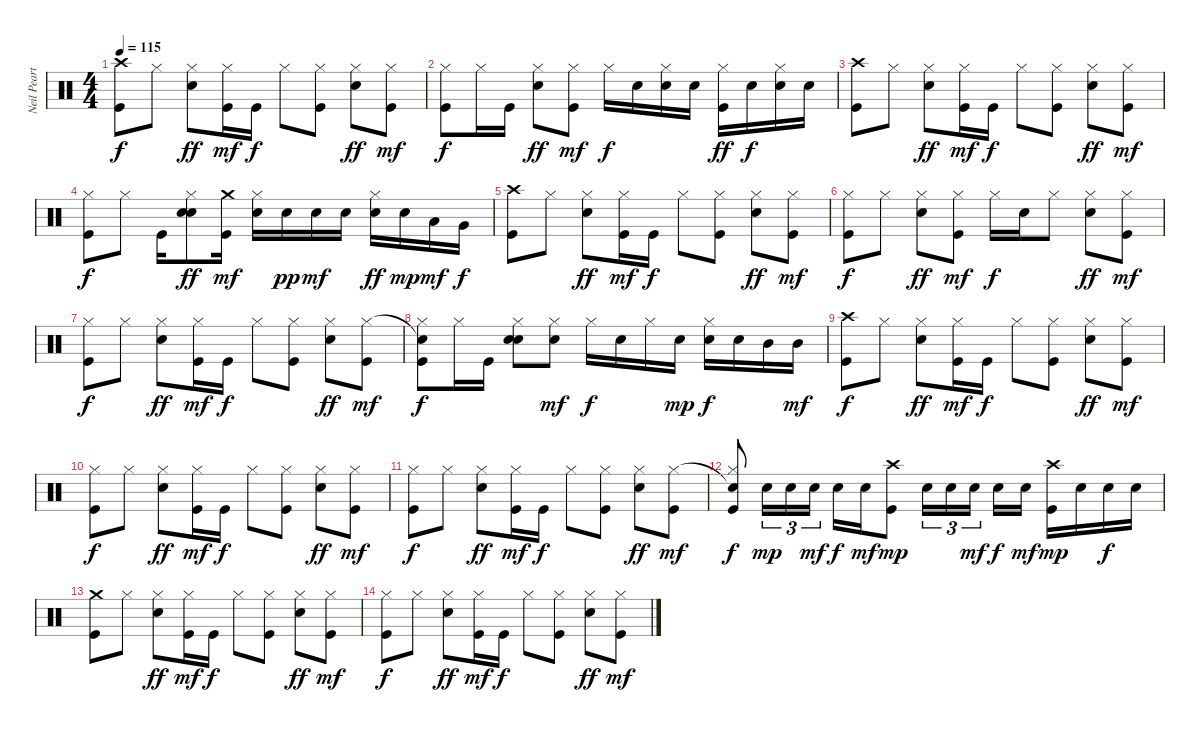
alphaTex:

\track ("Neil Peart - Drums" "Neil Peart") {instrument percussion}
\staff {score}
\articulation defaults
\ts (4 4)
\tempo 115
\clef neutral
\ks c
("Crash high (hit)" "Kick (hit)").8{dy f} "Hi-Hat (closed)".8 ("Hi-Hat (closed)" "Electric Snare (hit)").8{dy ff} ("Hi-Hat (closed)" "Kick (hit)").16{dy mf} "Kick (hit)".16{dy f} "Hi-Hat (closed)".8 ("Hi-Hat (closed)" "Kick (hit)").8 ("Hi-Hat (closed)" "Electric Snare (hit)").8{dy ff} ("Hi-Hat (closed)" "Kick (hit)").8{dy mf} |
("Hi-Hat (closed)" "Kick (hit)").8{dy f} "Hi-Hat (closed)".16 "Kick (hit)".16 ("Hi-Hat (closed)" "Electric Snare (hit)").8{dy ff} ("Hi-Hat (closed)" "Kick (hit)").8{dy mf} "Hi-Hat (closed)".16{dy f} "Electric Snare (hit)".16 ("Hi-Hat (closed)" "Electric Snare (hit)").16 "Electric Snare (hit)".16 ("Hi-Hat (closed)" "Kick (hit)").16{dy ff} "Electric Snare (hit)".16{dy f} ("Hi-Hat (closed)" "Electric Snare (hit)").16 "Electric Snare (hit)".16 |
("Crash high (hit)" "Kick (hit)").8 "Hi-Hat (closed)".8 ("Hi-Hat (closed)" "Electric Snare (hit)").8{dy ff} ("Hi-Hat (closed)" "Kick (hit)").16{dy mf} "Kick (hit)".16{dy f} "Hi-Hat (closed)".8 ("Hi-Hat (closed)" "Kick (hit)").8 ("Hi-Hat (closed)" "Electric Snare (hit)").8{dy ff} ("Hi-Hat (closed)" "Kick (hit)").8{dy mf} |
("Hi-Hat (closed)" "Kick (hit)").8{dy f} "Hi-Hat (closed)".8 "Kick (hit)".16 ("Hi-Hat (closed)" "Electric Snare (hit)" "Electric Snare (hit)").8{dy ff} ("Crash medium (hit)" "Kick (hit)").16{dy mf} ("Hi-Hat (closed)" "Electric Snare (hit)").16 "Electric Snare (hit)".16{dy pp} "Electric Snare (hit)".16{dy mf} "Electric Snare (hit)".16 ("Hi-Hat (closed)" "Electric Snare (hit)").16{dy ff} "Electric Snare (hit)".16{dy mp} "Low Tom (hit)".16{dy mf} "Very Low Tom (hit)".16{dy f} |
("Crash high (hit)" "Kick (hit)").8 "Hi-Hat (closed)".8 ("Hi-Hat (closed)" "Electric Snare (hit)").8{dy ff} ("Hi-Hat (closed)" "Kick (hit)").16{dy mf} "Kick (hit)".16{dy f} "Hi-Hat (closed)".8 ("Hi-Hat (closed)" "Kick (hit)").8 ("Hi-Hat (closed)" "Electric Snare (hit)").8{dy ff} ("Hi-Hat (closed)" "Kick (hit)").8{dy mf} |
("Hi-Hat (closed)" "Kick (hit)").8{dy f} "Hi-Hat (closed)".8 ("Hi-Hat (closed)" "Electric Snare (hit)").8{dy ff} ("Hi-Hat (closed)" "Kick (hit)").8{dy mf} "Hi-Hat (closed)".16{dy f} "Electric Snare (hit)".16 "Hi-Hat (closed)".8 ("Hi-Hat (closed)" "Electric Snare (hit)").8{dy ff} ("Hi-Hat (closed)" "Kick (hit)").8{dy mf} |
("Hi-Hat (closed)" "Kick (hit)").8{dy f} "Hi-Hat (closed)".8 ("Hi-Hat (closed)" "Electric Snare (hit)").8{dy ff} ("Hi-Hat (closed)" "Kick (hit)").16{dy mf} "Kick (hit)".16{dy f} "Hi-Hat (closed)".8 ("Hi-Hat (closed)" "Kick (hit)").8 ("Hi-Hat (closed)" "Electric Snare (hit)").8{dy ff} ("Hi-Hat (closed)" "Kick (hit)").8{dy mf} |
("Snare (hit)"{t} "Hi-Hat (closed)" "Kick (hit)").8{dy f} "Hi-Hat (closed)".16 "Kick (hit)".16 ("Hi-Hat (closed)" "Electric Snare (hit)" "Electric Snare (hit)").8 ("Hi-Hat (closed)" "Electric Snare (hit)").8{dy mf} "Hi-Hat (closed)".16{dy f} "Electric Snare (hit)".16 "Hi-Hat (closed)".16 "Electric Snare (hit)".16{dy mp} ("Hi-Hat (closed)" "Electric Snare (hit)").16{dy f} "Electric Snare (hit)".16 "Mid Tom (hit)".16 "Mid Tom (hit)".16{dy mf} |
("Crash high (hit)" "Kick (hit)").8{dy f} "Hi-Hat (closed)".8 ("Hi-Hat (closed)" "Electric Snare (hit)").8{dy ff} ("Hi-Hat (closed)" "Kick (hit)").16{dy mf} "Kick (hit)".16{dy f} "Hi-Hat (closed)".8 ("Hi-Hat (closed)" "Kick (hit)").8 ("Hi-Hat (closed)" "Electric Snare (hit)").8{dy ff} ("Hi-Hat (closed)" "Kick (hit)").8{dy mf} |
("Hi-Hat (closed)" "Kick (hit)").8{dy f} "Hi-Hat (closed)".8 ("Hi-Hat (closed)" "Electric Snare (hit)").8{dy ff} ("Hi-Hat (closed)" "Kick (hit)").16{dy mf} "Kick (hit)".16{dy f} "Hi-Hat (closed)".8 ("Hi-Hat (closed)" "Kick (hit)").8 ("Hi-Hat (closed)" "Electric Snare (hit)").8{dy ff} ("Hi-Hat (closed)" "Kick (hit)").8{dy mf} |
("Hi-Hat (closed)" "Kick (hit)").8{dy f} "Hi-Hat (closed)".8 ("Hi-Hat (closed)" "Electric Snare (hit)").8{dy ff} ("Hi-Hat (closed)" "Kick (hit)").16{dy mf} "Kick (hit)".16{dy f} "Hi-Hat (closed)".8 ("Hi-Hat (closed)" "Kick (hit)").8 ("Hi-Hat (closed)" "Electric Snare (hit)").8{dy ff} ("Hi-Hat (closed)" "Kick (hit)").8{dy mf} |
("Snare (hit)"{t} "Hi-Hat (closed)" "Kick (hit)").8{dy f} "Electric Snare (hit)".16{tu (3 2) dy mp} "Electric Snare (hit)".16{tu (3 2)} "Electric Snare (hit)".16{tu (3 2) dy mf} "Electric Snare (hit)".16{dy f} "Electric Snare (hit)".16{dy mf} ("Crash high (hit)" "Kick (hit)").8{dy mp} "Electric Snare (hit)".16{tu (3 2)} "Electric Snare (hit)".16{tu (3 2)} "Electric Snare (hit)".16{tu (3 2) dy mf} "Electric Snare (hit)".16{dy f} "Electric Snare (hit)".16{dy mf} ("Crash high (hit)" "Kick (hit)").16{dy mp} "Electric Snare (hit)".16 "Electric Snare (hit)".16{dy f} "Electric Snare (hit)".16 |
("Crash medium (hit)" "Kick (hit)").8 "Hi-Hat (closed)".8 ("Hi-Hat (closed)" "Electric Snare (hit)").8{dy ff} ("Hi-Hat (closed)" "Kick (hit)").16{dy mf} "Kick (hit)".16{dy f} "Hi-Hat (closed)".8 ("Hi-Hat (closed)" "Kick (hit)").8 ("Hi-Hat (closed)" "Electric Snare (hit)").8{dy ff} ("Hi-Hat (closed)" "Kick (hit)").8{dy mf} |
("Hi-Hat (closed)" "Kick (hit)").8{dy f} "Hi-Hat (closed)".8 ("Hi-Hat (closed)" "Electric Snare (hit)").8{dy ff} ("Hi-Hat (closed)" "Kick (hit)").16{dy mf} "Kick (hit)".16{dy f} "Hi-Hat (closed)".8 ("Hi-Hat (closed)" "Kick (hit)").8 ("Hi-Hat (closed)" "Electric Snare (hit)").8{dy ff} ("Hi-Hat (closed)" "Kick (hit)").8{dy mf}
